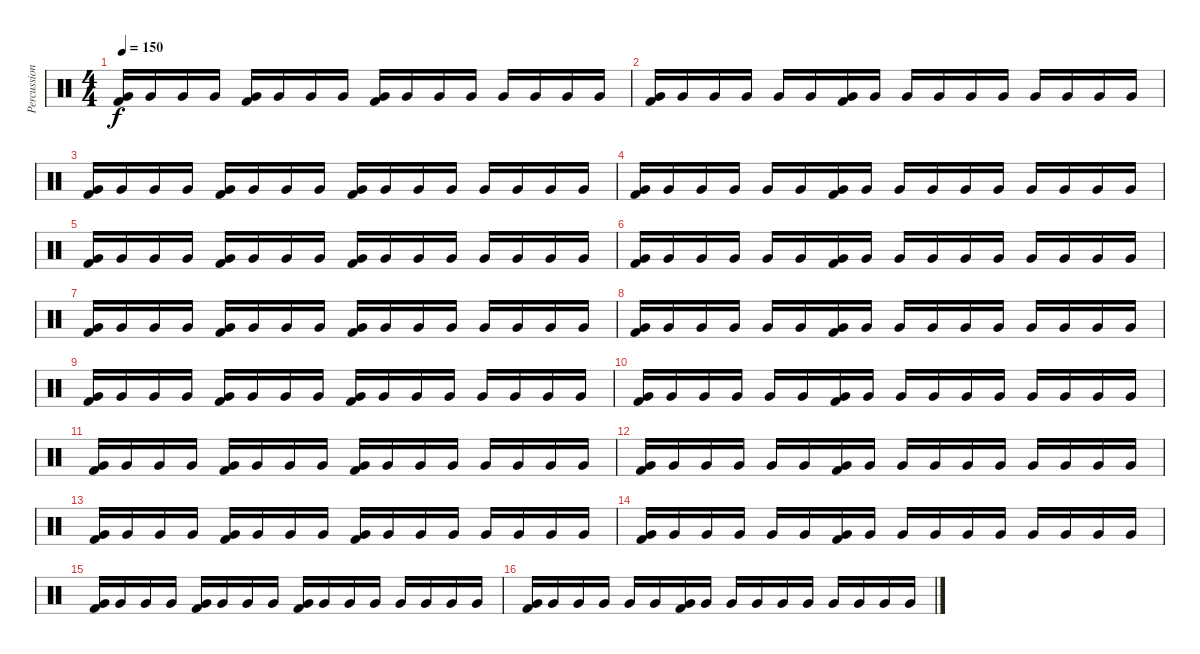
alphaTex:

\track ("Percussion" "Percussion") {instrument percussion}
\staff {score}
\articulation defaults
\ts (4 4)
\tempo 150
\clef neutral
\ks c
("Very Low Tom (hit)" "Kick (hit) 2").16{dy f} "Very Low Tom (hit)".16 "Very Low Tom (hit)".16 "Very Low Tom (hit)".16 ("Very Low Tom (hit)" "Kick (hit) 2").16 "Very Low Tom (hit)".16 "Very Low Tom (hit)".16 "Very Low Tom (hit)".16 ("Very Low Tom (hit)" "Kick (hit) 2").16 "Very Low Tom (hit)".16 "Very Low Tom (hit)".16 "Very Low Tom (hit)".16 "Very Low Tom (hit)".16 "Very Low Tom (hit)".16 "Very Low Tom (hit)".16 "Very Low Tom (hit)".16 |
("Very Low Tom (hit)" "Kick (hit) 2").16 "Very Low Tom (hit)".16 "Very Low Tom (hit)".16 "Very Low Tom (hit)".16 "Very Low Tom (hit)".16 "Very Low Tom (hit)".16 ("Very Low Tom (hit)" "Kick (hit) 2").16 "Very Low Tom (hit)".16 "Very Low Tom (hit)".16 "Very Low Tom (hit)".16 "Very Low Tom (hit)".16 "Very Low Tom (hit)".16 "Very Low Tom (hit)".16 "Very Low Tom (hit)".16 "Very Low Tom (hit)".16 "Very Low Tom (hit)".16 |
("Very Low Tom (hit)" "Kick (hit) 2").16 "Very Low Tom (hit)".16 "Very Low Tom (hit)".16 "Very Low Tom (hit)".16 ("Very Low Tom (hit)" "Kick (hit) 2").16 "Very Low Tom (hit)".16 "Very Low Tom (hit)".16 "Very Low Tom (hit)".16 ("Very Low Tom (hit)" "Kick (hit) 2").16 "Very Low Tom (hit)".16 "Very Low Tom (hit)".16 "Very Low Tom (hit)".16 "Very Low Tom (hit)".16 "Very Low Tom (hit)".16 "Very Low Tom (hit)".16 "Very Low Tom (hit)".16 |
("Very Low Tom (hit)" "Kick (hit) 2").16 "Very Low Tom (hit)".16 "Very Low Tom (hit)".16 "Very Low Tom (hit)".16 "Very Low Tom (hit)".16 "Very Low Tom (hit)".16 ("Very Low Tom (hit)" "Kick (hit) 2").16 "Very Low Tom (hit)".16 "Very Low Tom (hit)".16 "Very Low Tom (hit)".16 "Very Low Tom (hit)".16 "Very Low Tom (hit)".16 "Very Low Tom (hit)".16 "Very Low Tom (hit)".16 "Very Low Tom (hit)".16 "Very Low Tom (hit)".16 |
("Very Low Tom (hit)" "Kick (hit) 2").16 "Very Low Tom (hit)".16 "Very Low Tom (hit)".16 "Very Low Tom (hit)".16 ("Very Low Tom (hit)" "Kick (hit) 2").16 "Very Low Tom (hit)".16 "Very Low Tom (hit)".16 "Very Low Tom (hit)".16 ("Very Low Tom (hit)" "Kick (hit) 2").16 "Very Low Tom (hit)".16 "Very Low Tom (hit)".16 "Very Low Tom (hit)".16 "Very Low Tom (hit)".16 "Very Low Tom (hit)".16 "Very Low Tom (hit)".16 "Very Low Tom (hit)".16 |
("Very Low Tom (hit)" "Kick (hit) 2").16 "Very Low Tom (hit)".16 "Very Low Tom (hit)".16 "Very Low Tom (hit)".16 "Very Low Tom (hit)".16 "Very Low Tom (hit)".16 ("Very Low Tom (hit)" "Kick (hit) 2").16 "Very Low Tom (hit)".16 "Very Low Tom (hit)".16 "Very Low Tom (hit)".16 "Very Low Tom (hit)".16 "Very Low Tom (hit)".16 "Very Low Tom (hit)".16 "Very Low Tom (hit)".16 "Very Low Tom (hit)".16 "Very Low Tom (hit)".16 |
("Very Low Tom (hit)" "Kick (hit) 2").16 "Very Low Tom (hit)".16 "Very Low Tom (hit)".16 "Very Low Tom (hit)".16 ("Very Low Tom (hit)" "Kick (hit) 2").16 "Very Low Tom (hit)".16 "Very Low Tom (hit)".16 "Very Low Tom (hit)".16 ("Very Low Tom (hit)" "Kick (hit) 2").16 "Very Low Tom (hit)".16 "Very Low Tom (hit)".16 "Very Low Tom (hit)".16 "Very Low Tom (hit)".16 "Very Low Tom (hit)".16 "Very Low Tom (hit)".16 "Very Low Tom (hit)".16 |
("Very Low Tom (hit)" "Kick (hit) 2").16 "Very Low Tom (hit)".16 "Very Low Tom (hit)".16 "Very Low Tom (hit)".16 "Very Low Tom (hit)".16 "Very Low Tom (hit)".16 ("Very Low Tom (hit)" "Kick (hit) 2").16 "Very Low Tom (hit)".16 "Very Low Tom (hit)".16 "Very Low Tom (hit)".16 "Very Low Tom (hit)".16 "Very Low Tom (hit)".16 "Very Low Tom (hit)".16 "Very Low Tom (hit)".16 "Very Low Tom (hit)".16 "Very Low Tom (hit)".16 |
("Very Low Tom (hit)" "Kick (hit) 2").16 "Very Low Tom (hit)".16 "Very Low Tom (hit)".16 "Very Low Tom (hit)".16 ("Very Low Tom (hit)" "Kick (hit) 2").16 "Very Low Tom (hit)".16 "Very Low Tom (hit)".16 "Very Low Tom (hit)".16 ("Very Low Tom (hit)" "Kick (hit) 2").16 "Very Low Tom (hit)".16 "Very Low Tom (hit)".16 "Very Low Tom (hit)".16 "Very Low Tom (hit)".16 "Very Low Tom (hit)".16 "Very Low Tom (hit)".16 "Very Low Tom (hit)".16 |
("Very Low Tom (hit)" "Kick (hit) 2").16 "Very Low Tom (hit)".16 "Very Low Tom (hit)".16 "Very Low Tom (hit)".16 "Very Low Tom (hit)".16 "Very Low Tom (hit)".16 ("Very Low Tom (hit)" "Kick (hit) 2").16 "Very Low Tom (hit)".16 "Very Low Tom (hit)".16 "Very Low Tom (hit)".16 "Very Low Tom (hit)".16 "Very Low Tom (hit)".16 "Very Low Tom (hit)".16 "Very Low Tom (hit)".16 "Very Low Tom (hit)".16 "Very Low Tom (hit)".16 |
("Very Low Tom (hit)" "Kick (hit) 2").16 "Very Low Tom (hit)".16 "Very Low Tom (hit)".16 "Very Low Tom (hit)".16 ("Very Low Tom (hit)" "Kick (hit) 2").16 "Very Low Tom (hit)".16 "Very Low Tom (hit)".16 "Very Low Tom (hit)".16 ("Very Low Tom (hit)" "Kick (hit) 2").16 "Very Low Tom (hit)".16 "Very Low Tom (hit)".16 "Very Low Tom (hit)".16 "Very Low Tom (hit)".16 "Very Low Tom (hit)".16 "Very Low Tom (hit)".16 "Very Low Tom (hit)".16 |
("Very Low Tom (hit)" "Kick (hit) 2").16 "Very Low Tom (hit)".16 "Very Low Tom (hit)".16 "Very Low Tom (hit)".16 "Very Low Tom (hit)".16 "Very Low Tom (hit)".16 ("Very Low Tom (hit)" "Kick (hit) 2").16 "Very Low Tom (hit)".16 "Very Low Tom (hit)".16 "Very Low Tom (hit)".16 "Very Low Tom (hit)".16 "Very Low Tom (hit)".16 "Very Low Tom (hit)".16 "Very Low Tom (hit)".16 "Very Low Tom (hit)".16 "Very Low Tom (hit)".16 |
("Very Low Tom (hit)" "Kick (hit) 2").16 "Very Low Tom (hit)".16 "Very Low Tom (hit)".16 "Very Low Tom (hit)".16 ("Very Low Tom (hit)" "Kick (hit) 2").16 "Very Low Tom (hit)".16 "Very Low Tom (hit)".16 "Very Low Tom (hit)".16 ("Very Low Tom (hit)" "Kick (hit) 2").16 "Very Low Tom (hit)".16 "Very Low Tom (hit)".16 "Very Low Tom (hit)".16 "Very Low Tom (hit)".16 "Very Low Tom (hit)".16 "Very Low Tom (hit)".16 "Very Low Tom (hit)".16 |
("Very Low Tom (hit)" "Kick (hit) 2").16 "Very Low Tom (hit)".16 "Very Low Tom (hit)".16 "Very Low Tom (hit)".16 "Very Low Tom (hit)".16 "Very Low Tom (hit)".16 ("Very Low Tom (hit)" "Kick (hit) 2").16 "Very Low Tom (hit)".16 "Very Low Tom (hit)".16 "Very Low Tom (hit)".16 "Very Low Tom (hit)".16 "Very Low Tom (hit)".16 "Very Low Tom (hit)".16 "Very Low Tom (hit)".16 "Very Low Tom (hit)".16 "Very Low Tom (hit)".16 |
("Very Low Tom (hit)" "Kick (hit) 2").16 "Very Low Tom (hit)".16 "Very Low Tom (hit)".16 "Very Low Tom (hit)".16 ("Very Low Tom (hit)" "Kick (hit) 2").16 "Very Low Tom (hit)".16 "Very Low Tom (hit)".16 "Very Low Tom (hit)".16 ("Very Low Tom (hit)" "Kick (hit) 2").16 "Very Low Tom (hit)".16 "Very Low Tom (hit)".16 "Very Low Tom (hit)".16 "Very Low Tom (hit)".16 "Very Low Tom (hit)".16 "Very Low Tom (hit)".16 "Very Low Tom (hit)".16 |
("Very Low Tom (hit)" "Kick (hit) 2").16 "Very Low Tom (hit)".16 "Very Low Tom (hit)".16 "Very Low Tom (hit)".16 "Very Low Tom (hit)".16 "Very Low Tom (hit)".16 ("Very Low Tom (hit)" "Kick (hit) 2").16 "Very Low Tom (hit)".16 "Very Low Tom (hit)".16 "Very Low Tom (hit)".16 "Very Low Tom (hit)".16 "Very Low Tom (hit)".16 "Very Low Tom (hit)".16 "Very Low Tom (hit)".16 "Very Low Tom (hit)".16 "Very Low Tom (hit)".16
